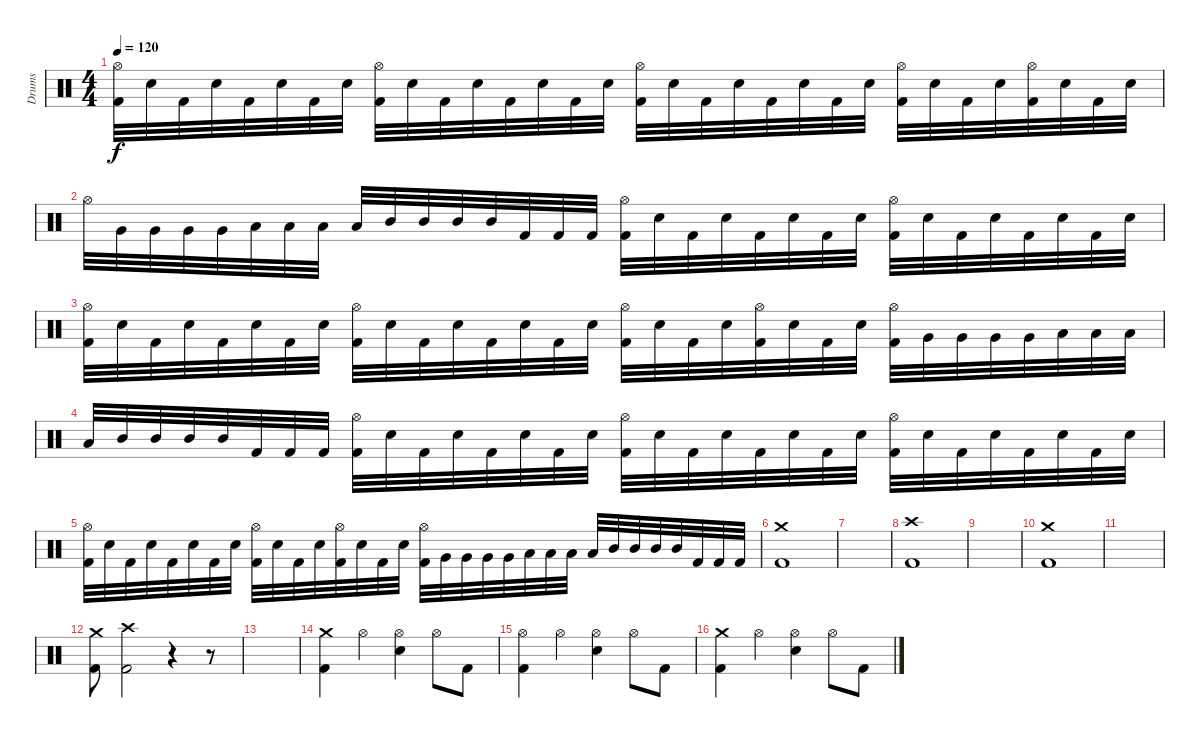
\track ("Drums" "Drums") {instrument percussion}
\staff {score}
\articulation defaults
\ts (4 4)
\tempo 120
\clef neutral
\ks c
("Kick (hit) 2" "Hi-Hat (open)").32{dy f} "Electric Snare (hit)".32 "Kick (hit) 2".32 "Electric Snare (hit)".32 "Kick (hit) 2".32 "Electric Snare (hit)".32 "Kick (hit) 2".32 "Electric Snare (hit)".32 ("Kick (hit) 2" "Hi-Hat (open)").32 "Electric Snare (hit)".32 "Kick (hit) 2".32 "Electric Snare (hit)".32 "Kick (hit) 2".32 "Electric Snare (hit)".32 "Kick (hit) 2".32 "Electric Snare (hit)".32 ("Kick (hit) 2" "Hi-Hat (open)").32 "Electric Snare (hit)".32 "Kick (hit) 2".32 "Electric Snare (hit)".32 "Kick (hit) 2".32 "Electric Snare (hit)".32 "Kick (hit) 2".32 "Electric Snare (hit)".32 ("Kick (hit) 2" "Hi-Hat (open)").32 "Electric Snare (hit)".32 "Kick (hit) 2".32 "Electric Snare (hit)".32 ("Kick (hit) 2" "Hi-Hat (open)").32 "Electric Snare (hit)".32 "Kick (hit) 2".32 "Electric Snare (hit)".32 |
"Hi-Hat (open)".32 "Very Low Tom (hit)".32 "Very Low Tom (hit)".32 "Very Low Tom (hit)".32 "Very Low Tom (hit)".32 "Low Tom (hit)".32 "Low Tom (hit)".32 "Low Tom (hit)".32 "Low Tom (hit)".32 "Mid Tom (hit)".32 "Mid Tom (hit)".32 "Mid Tom (hit)".32 "Mid Tom (hit)".32 "Kick (hit) 2".32 "Kick (hit) 2".32 "Kick (hit) 2".32 ("Kick (hit) 2" "Hi-Hat (open)").32 "Electric Snare (hit)".32 "Kick (hit) 2".32 "Electric Snare (hit)".32 "Kick (hit) 2".32 "Electric Snare (hit)".32 "Kick (hit) 2".32 "Electric Snare (hit)".32 ("Kick (hit) 2" "Hi-Hat (open)").32 "Electric Snare (hit)".32 "Kick (hit) 2".32 "Electric Snare (hit)".32 "Kick (hit) 2".32 "Electric Snare (hit)".32 "Kick (hit) 2".32 "Electric Snare (hit)".32 |
("Kick (hit) 2" "Hi-Hat (open)").32 "Electric Snare (hit)".32 "Kick (hit) 2".32 "Electric Snare (hit)".32 "Kick (hit) 2".32 "Electric Snare (hit)".32 "Kick (hit) 2".32 "Electric Snare (hit)".32 ("Kick (hit) 2" "Hi-Hat (open)").32 "Electric Snare (hit)".32 "Kick (hit) 2".32 "Electric Snare (hit)".32 "Kick (hit) 2".32 "Electric Snare (hit)".32 "Kick (hit) 2".32 "Electric Snare (hit)".32 ("Kick (hit) 2" "Hi-Hat (open)").32 "Electric Snare (hit)".32 "Kick (hit) 2".32 "Electric Snare (hit)".32 ("Kick (hit) 2" "Hi-Hat (open)").32 "Electric Snare (hit)".32 "Kick (hit) 2".32 "Electric Snare (hit)".32 ("Kick (hit) 2" "Hi-Hat (open)").32 "Very Low Tom (hit)".32 "Very Low Tom (hit)".32 "Very Low Tom (hit)".32 "Very Low Tom (hit)".32 "Low Tom (hit)".32 "Low Tom (hit)".32 "Low Tom (hit)".32 |
"Low Tom (hit)".32 "Mid Tom (hit)".32 "Mid Tom (hit)".32 "Mid Tom (hit)".32 "Mid Tom (hit)".32 "Kick (hit) 2".32 "Kick (hit) 2".32 "Kick (hit) 2".32 ("Kick (hit) 2" "Hi-Hat (open)").32 "Electric Snare (hit)".32 "Kick (hit) 2".32 "Electric Snare (hit)".32 "Kick (hit) 2".32 "Electric Snare (hit)".32 "Kick (hit) 2".32 "Electric Snare (hit)".32 ("Kick (hit) 2" "Hi-Hat (open)").32 "Electric Snare (hit)".32 "Kick (hit) 2".32 "Electric Snare (hit)".32 "Kick (hit) 2".32 "Electric Snare (hit)".32 "Kick (hit) 2".32 "Electric Snare (hit)".32 ("Kick (hit) 2" "Hi-Hat (open)").32 "Electric Snare (hit)".32 "Kick (hit) 2".32 "Electric Snare (hit)".32 "Kick (hit) 2".32 "Electric Snare (hit)".32 "Kick (hit) 2".32 "Electric Snare (hit)".32 |
("Kick (hit) 2" "Hi-Hat (open)").32 "Electric Snare (hit)".32 "Kick (hit) 2".32 "Electric Snare (hit)".32 "Kick (hit) 2".32 "Electric Snare (hit)".32 "Kick (hit) 2".32 "Electric Snare (hit)".32 ("Kick (hit) 2" "Hi-Hat (open)").32 "Electric Snare (hit)".32 "Kick (hit) 2".32 "Electric Snare (hit)".32 ("Kick (hit) 2" "Hi-Hat (open)").32 "Electric Snare (hit)".32 "Kick (hit) 2".32 "Electric Snare (hit)".32 ("Kick (hit) 2" "Hi-Hat (open)").32 "Very Low Tom (hit)".32 "Very Low Tom (hit)".32 "Very Low Tom (hit)".32 "Very Low Tom (hit)".32 "Low Tom (hit)".32 "Low Tom (hit)".32 "Low Tom (hit)".32 "Low Tom (hit)".32 "Mid Tom (hit)".32 "Mid Tom (hit)".32 "Mid Tom (hit)".32 "Mid Tom (hit)".32 "Kick (hit) 2".32 "Kick (hit) 2".32 "Kick (hit) 2".32 |
("Kick (hit) 2" "Crash medium (hit)").1 |
|
("Kick (hit) 2" "Crash high (hit)").1 |
|
("Kick (hit) 2" "Crash medium (hit)").1 |
|
("Kick (hit) 2" "Crash medium (hit)").8 ("Kick (hit) 2" "Crash high (hit)").2 r.4 r.8 |
|
("Crash medium (hit)" "Kick (hit) 2").4 "Hi-Hat (open)".4 ("Hi-Hat (open)" "Electric Snare (hit)").4 "Hi-Hat (open)".8 "Kick (hit) 2".8 |
("Hi-Hat (open)" "Kick (hit) 2").4 "Hi-Hat (open)".4 ("Hi-Hat (open)" "Electric Snare (hit)").4 "Hi-Hat (open)".8 "Kick (hit) 2".8 |
("Crash medium (hit)" "Kick (hit) 2").4 "Hi-Hat (open)".4 ("Hi-Hat (open)" "Electric Snare (hit)").4 "Hi-Hat (open)".8 "Kick (hit) 2".8
